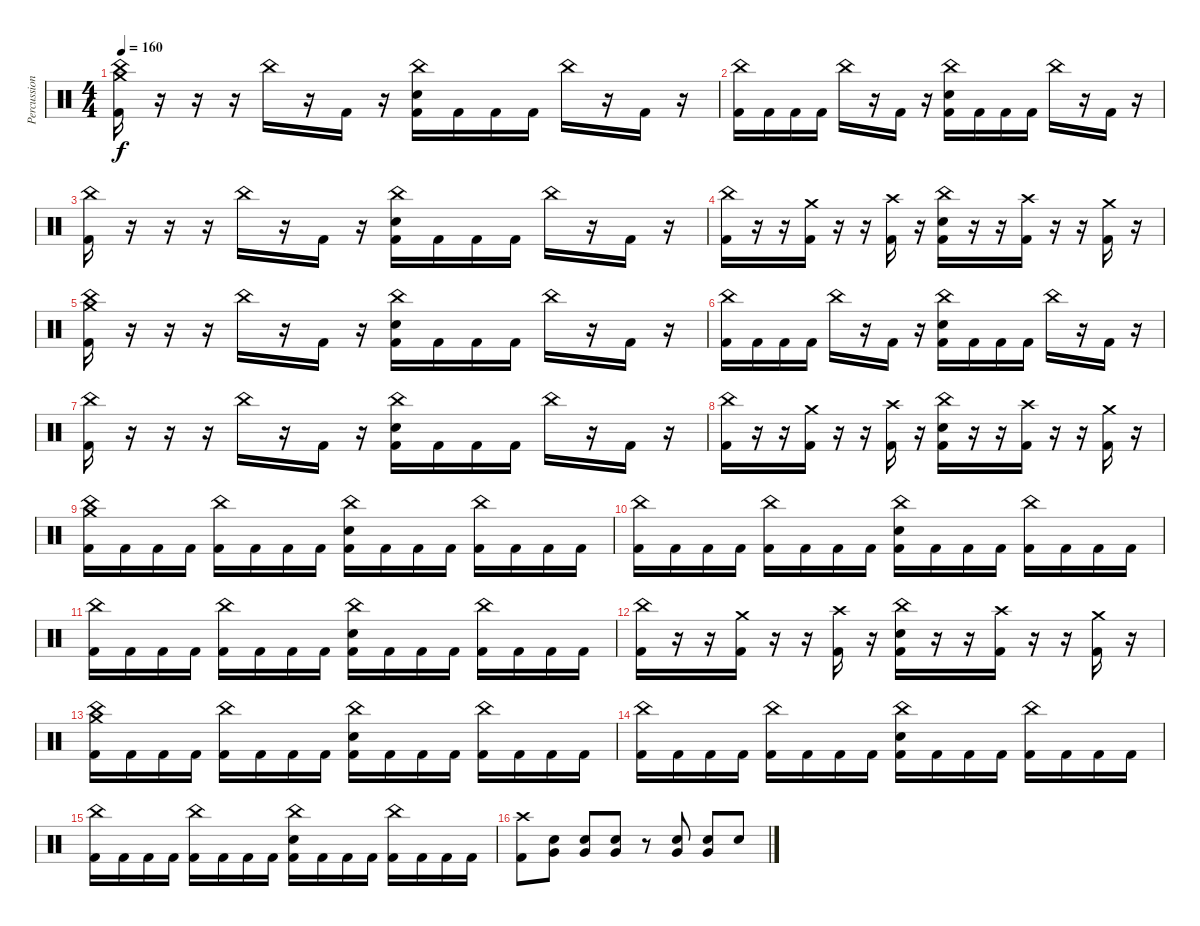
\track ("Percussion" "Percussion") {instrument percussion}
\staff {score}
\articulation defaults
\ts (4 4)
\tempo 160
\clef neutral
\ks c
("Crash medium (hit)" "China (hit)" "Kick (hit) 2").16{dy f} r.16 r.16 r.16 "China (hit)".16 r.16 "Kick (hit) 2".16 r.16 ("China (hit)" "Electric Snare (hit)" "Kick (hit) 2").16 "Kick (hit) 2".16 "Kick (hit) 2".16 "Kick (hit) 2".16 "China (hit)".16 r.16 "Kick (hit) 2".16 r.16 |
("China (hit)" "Kick (hit) 2").16 "Kick (hit) 2".16 "Kick (hit) 2".16 "Kick (hit) 2".16 "China (hit)".16 r.16 "Kick (hit) 2".16 r.16 ("China (hit)" "Electric Snare (hit)" "Kick (hit) 2").16 "Kick (hit) 2".16 "Kick (hit) 2".16 "Kick (hit) 2".16 "China (hit)".16 r.16 "Kick (hit) 2".16 r.16 |
("China (hit)" "Kick (hit) 2").16 r.16 r.16 r.16 "China (hit)".16 r.16 "Kick (hit) 2".16 r.16 ("China (hit)" "Electric Snare (hit)" "Kick (hit) 2").16 "Kick (hit) 2".16 "Kick (hit) 2".16 "Kick (hit) 2".16 "China (hit)".16 r.16 "Kick (hit) 2".16 r.16 |
("China (hit)" "Kick (hit) 2").16 r.16 r.16 ("Crash medium (hit)" "Kick (hit) 2").16 r.16 r.16 ("Crash high (hit)" "Kick (hit) 2").16 r.16 ("China (hit)" "Electric Snare (hit)" "Kick (hit) 2").16 r.16 r.16 ("Crash high (hit)" "Kick (hit) 2").16 r.16 r.16 ("Crash medium (hit)" "Kick (hit) 2").16 r.16 |
("Crash medium (hit)" "China (hit)" "Kick (hit) 2").16 r.16 r.16 r.16 "China (hit)".16 r.16 "Kick (hit) 2".16 r.16 ("China (hit)" "Electric Snare (hit)" "Kick (hit) 2").16 "Kick (hit) 2".16 "Kick (hit) 2".16 "Kick (hit) 2".16 "China (hit)".16 r.16 "Kick (hit) 2".16 r.16 |
("China (hit)" "Kick (hit) 2").16 "Kick (hit) 2".16 "Kick (hit) 2".16 "Kick (hit) 2".16 "China (hit)".16 r.16 "Kick (hit) 2".16 r.16 ("China (hit)" "Electric Snare (hit)" "Kick (hit) 2").16 "Kick (hit) 2".16 "Kick (hit) 2".16 "Kick (hit) 2".16 "China (hit)".16 r.16 "Kick (hit) 2".16 r.16 |
("China (hit)" "Kick (hit) 2").16 r.16 r.16 r.16 "China (hit)".16 r.16 "Kick (hit) 2".16 r.16 ("China (hit)" "Electric Snare (hit)" "Kick (hit) 2").16 "Kick (hit) 2".16 "Kick (hit) 2".16 "Kick (hit) 2".16 "China (hit)".16 r.16 "Kick (hit) 2".16 r.16 |
("China (hit)" "Kick (hit) 2").16 r.16 r.16 ("Crash medium (hit)" "Kick (hit) 2").16 r.16 r.16 ("Crash high (hit)" "Kick (hit) 2").16 r.16 ("China (hit)" "Electric Snare (hit)" "Kick (hit) 2").16 r.16 r.16 ("Crash high (hit)" "Kick (hit) 2").16 r.16 r.16 ("Crash medium (hit)" "Kick (hit) 2").16 r.16 |
("Crash medium (hit)" "China (hit)" "Kick (hit) 2").16 "Kick (hit) 2".16 "Kick (hit) 2".16 "Kick (hit) 2".16 ("China (hit)" "Kick (hit) 2").16 "Kick (hit) 2".16 "Kick (hit) 2".16 "Kick (hit) 2".16 ("China (hit)" "Electric Snare (hit)" "Kick (hit) 2").16 "Kick (hit) 2".16 "Kick (hit) 2".16 "Kick (hit) 2".16 ("China (hit)" "Kick (hit) 2").16 "Kick (hit) 2".16 "Kick (hit) 2".16 "Kick (hit) 2".16 |
("China (hit)" "Kick (hit) 2").16 "Kick (hit) 2".16 "Kick (hit) 2".16 "Kick (hit) 2".16 ("China (hit)" "Kick (hit) 2").16 "Kick (hit) 2".16 "Kick (hit) 2".16 "Kick (hit) 2".16 ("China (hit)" "Electric Snare (hit)" "Kick (hit) 2").16 "Kick (hit) 2".16 "Kick (hit) 2".16 "Kick (hit) 2".16 ("China (hit)" "Kick (hit) 2").16 "Kick (hit) 2".16 "Kick (hit) 2".16 "Kick (hit) 2".16 |
("China (hit)" "Kick (hit) 2").16 "Kick (hit) 2".16 "Kick (hit) 2".16 "Kick (hit) 2".16 ("China (hit)" "Kick (hit) 2").16 "Kick (hit) 2".16 "Kick (hit) 2".16 "Kick (hit) 2".16 ("China (hit)" "Electric Snare (hit)" "Kick (hit) 2").16 "Kick (hit) 2".16 "Kick (hit) 2".16 "Kick (hit) 2".16 ("China (hit)" "Kick (hit) 2").16 "Kick (hit) 2".16 "Kick (hit) 2".16 "Kick (hit) 2".16 |
("China (hit)" "Kick (hit) 2").16 r.16 r.16 ("Crash medium (hit)" "Kick (hit) 2").16 r.16 r.16 ("Crash high (hit)" "Kick (hit) 2").16 r.16 ("China (hit)" "Electric Snare (hit)" "Kick (hit) 2").16 r.16 r.16 ("Crash high (hit)" "Kick (hit) 2").16 r.16 r.16 ("Crash medium (hit)" "Kick (hit) 2").16 r.16 |
("Crash medium (hit)" "China (hit)" "Kick (hit) 2").16 "Kick (hit) 2".16 "Kick (hit) 2".16 "Kick (hit) 2".16 ("China (hit)" "Kick (hit) 2").16 "Kick (hit) 2".16 "Kick (hit) 2".16 "Kick (hit) 2".16 ("China (hit)" "Electric Snare (hit)" "Kick (hit) 2").16 "Kick (hit) 2".16 "Kick (hit) 2".16 "Kick (hit) 2".16 ("China (hit)" "Kick (hit) 2").16 "Kick (hit) 2".16 "Kick (hit) 2".16 "Kick (hit) 2".16 |
("China (hit)" "Kick (hit) 2").16 "Kick (hit) 2".16 "Kick (hit) 2".16 "Kick (hit) 2".16 ("China (hit)" "Kick (hit) 2").16 "Kick (hit) 2".16 "Kick (hit) 2".16 "Kick (hit) 2".16 ("China (hit)" "Electric Snare (hit)" "Kick (hit) 2").16 "Kick (hit) 2".16 "Kick (hit) 2".16 "Kick (hit) 2".16 ("China (hit)" "Kick (hit) 2").16 "Kick (hit) 2".16 "Kick (hit) 2".16 "Kick (hit) 2".16 |
("China (hit)" "Kick (hit) 2").16 "Kick (hit) 2".16 "Kick (hit) 2".16 "Kick (hit) 2".16 ("China (hit)" "Kick (hit) 2").16 "Kick (hit) 2".16 "Kick (hit) 2".16 "Kick (hit) 2".16 ("China (hit)" "Electric Snare (hit)" "Kick (hit) 2").16 "Kick (hit) 2".16 "Kick (hit) 2".16 "Kick (hit) 2".16 ("China (hit)" "Kick (hit) 2").16 "Kick (hit) 2".16 "Kick (hit) 2".16 "Kick (hit) 2".16 |
("Crash high (hit)" "Kick (hit) 2").8 ("Electric Snare (hit)" "Very Low Tom (hit)").8 ("Electric Snare (hit)" "Very Low Tom (hit)").8 ("Electric Snare (hit)" "Very Low Tom (hit)").8 r.8 ("Electric Snare (hit)" "Very Low Tom (hit)").8 ("Electric Snare (hit)" "Very Low Tom (hit)").8 "Electric Snare (hit)".8
